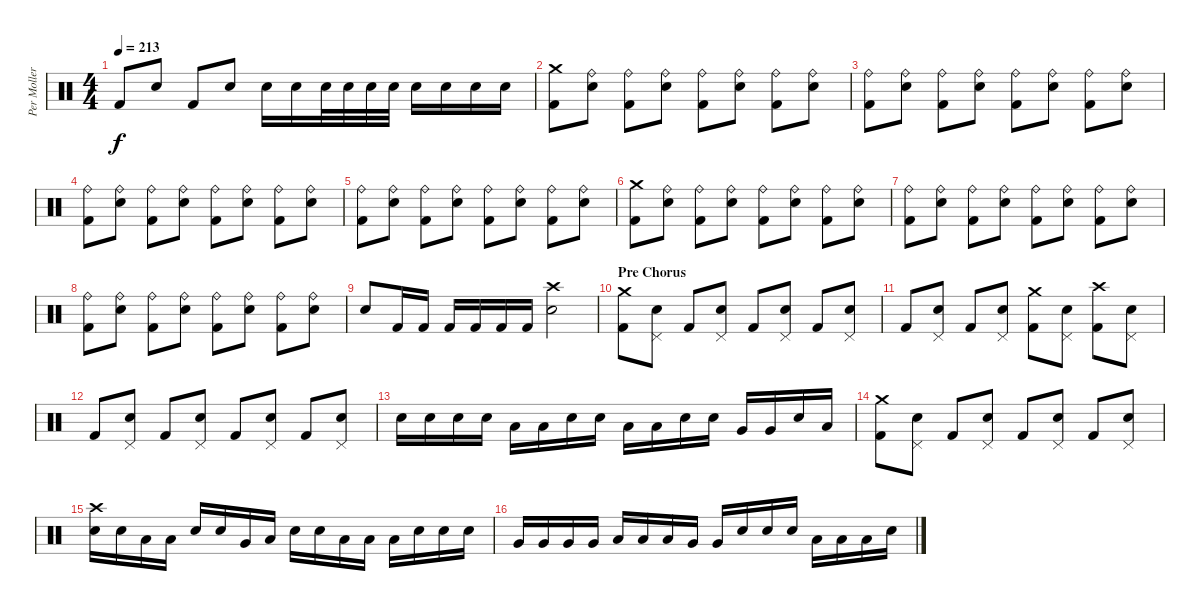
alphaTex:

\track ("Per Moller Jensen" "Per Moller") {instrument percussion}
\staff {score}
\articulation defaults
\ts (4 4)
\tempo 213
\clef neutral
\ks c "Kick (hit) 2".8{dy f} "Snare (hit) 2".8 "Kick (hit) 2".8 "Snare (hit) 2".8 "Snare (hit) 2".16 "Snare (hit) 2".16 "Snare (hit) 2".32 "Snare (hit) 2".32 "Snare (hit) 2".32 "Snare (hit) 2".32 "Snare (hit) 2".16 "Snare (hit) 2".16 "Snare (hit) 2".16 "Snare (hit) 2".16
|
("Crash medium (hit)" "Kick (hit) 2").8 ("Ride (bell)" "Snare (hit) 2").8 ("Ride (bell)" "Kick (hit) 2").8 ("Ride (bell)" "Snare (hit) 2").8 ("Ride (bell)" "Kick (hit) 2").8 ("Ride (bell)" "Snare (hit) 2").8 ("Ride (bell)" "Kick (hit) 2").8 ("Ride (bell)" "Snare (hit) 2").8 |
("Ride (bell)" "Kick (hit) 2").8 ("Ride (bell)" "Snare (hit) 2").8 ("Ride (bell)" "Kick (hit) 2").8 ("Ride (bell)" "Snare (hit) 2").8 ("Ride (bell)" "Kick (hit) 2").8 ("Ride (bell)" "Snare (hit) 2").8 ("Ride (bell)" "Kick (hit) 2").8 ("Ride (bell)" "Snare (hit) 2").8 |
("Ride (bell)" "Kick (hit) 2").8 ("Ride (bell)" "Snare (hit) 2").8 ("Ride (bell)" "Kick (hit) 2").8 ("Ride (bell)" "Snare (hit) 2").8 ("Ride (bell)" "Kick (hit) 2").8 ("Ride (bell)" "Snare (hit) 2").8 ("Ride (bell)" "Kick (hit) 2").8 ("Ride (bell)" "Snare (hit) 2").8 |
("Ride (bell)" "Kick (hit) 2").8 ("Ride (bell)" "Snare (hit) 2").8 ("Ride (bell)" "Kick (hit) 2").8 ("Ride (bell)" "Snare (hit) 2").8 ("Ride (bell)" "Kick (hit) 2").8 ("Ride (bell)" "Snare (hit) 2").8 ("Ride (bell)" "Kick (hit) 2").8 ("Ride (bell)" "Snare (hit) 2").8 |
("Crash medium (hit)" "Kick (hit) 2").8 ("Ride (bell)" "Snare (hit) 2").8 ("Ride (bell)" "Kick (hit) 2").8 ("Ride (bell)" "Snare (hit) 2").8 ("Ride (bell)" "Kick (hit) 2").8 ("Ride (bell)" "Snare (hit) 2").8 ("Ride (bell)" "Kick (hit) 2").8 ("Ride (bell)" "Snare (hit) 2").8 |
("Ride (bell)" "Kick (hit) 2").8 ("Ride (bell)" "Snare (hit) 2").8 ("Ride (bell)" "Kick (hit) 2").8 ("Ride (bell)" "Snare (hit) 2").8 ("Ride (bell)" "Kick (hit) 2").8 ("Ride (bell)" "Snare (hit) 2").8 ("Ride (bell)" "Kick (hit) 2").8 ("Ride (bell)" "Snare (hit) 2").8 |
("Ride (bell)" "Kick (hit) 2").8 ("Ride (bell)" "Snare (hit) 2").8 ("Ride (bell)" "Kick (hit) 2").8 ("Ride (bell)" "Snare (hit) 2").8 ("Ride (bell)" "Kick (hit) 2").8 ("Ride (bell)" "Snare (hit) 2").8 ("Ride (bell)" "Kick (hit) 2").8 ("Ride (bell)" "Snare (hit) 2").8 |
"Snare (hit) 2".8 "Kick (hit) 2".16 "Kick (hit) 2".16 "Kick (hit) 2".16 "Kick (hit) 2".16 "Kick (hit) 2".16 "Kick (hit) 2".16 ("Crash high (hit)" "Snare (hit) 2").2 |
\section ("" "Pre Chorus")
("Crash medium (hit)" "Kick (hit) 2").8 ("Pedal Hi-Hat (hit)" "Snare (hit) 2").8 "Kick (hit) 2".8 ("Pedal Hi-Hat (hit)" "Snare (hit) 2").8 "Kick (hit) 2".8 ("Pedal Hi-Hat (hit)" "Snare (hit) 2").8 "Kick (hit) 2".8 ("Pedal Hi-Hat (hit)" "Snare (hit) 2").8 |
"Kick (hit) 2".8 ("Pedal Hi-Hat (hit)" "Snare (hit) 2").8 "Kick (hit) 2".8 ("Pedal Hi-Hat (hit)" "Snare (hit) 2").8 ("Crash medium (hit)" "Kick (hit) 2").8 ("Pedal Hi-Hat (hit)" "Snare (hit) 2").8 ("Crash high (hit)" "Kick (hit) 2").8 ("Pedal Hi-Hat (hit)" "Snare (hit) 2").8 |
"Kick (hit) 2".8 ("Pedal Hi-Hat (hit)" "Snare (hit) 2").8 "Kick (hit) 2".8 ("Pedal Hi-Hat (hit)" "Snare (hit) 2").8 "Kick (hit) 2".8 ("Pedal Hi-Hat (hit)" "Snare (hit) 2").8 "Kick (hit) 2".8 ("Pedal Hi-Hat (hit)" "Snare (hit) 2").8 |
"Snare (hit) 2".16 "Snare (hit) 2".16 "Snare (hit) 2".16 "Snare (hit) 2".16 "Low Floor Tom (hit)".16 "Low Floor Tom (hit)".16 "Snare (hit) 2".16 "Snare (hit) 2".16 "Low Floor Tom (hit)".16 "Low Floor Tom (hit)".16 "Snare (hit) 2".16 "Snare (hit) 2".16 "Very Low Tom (hit)".16 "Very Low Tom (hit)".16 "Snare (hit) 2".16 "Low Floor Tom (hit)".16 |
("Crash medium (hit)" "Kick (hit) 2").8 ("Pedal Hi-Hat (hit)" "Snare (hit) 2").8 "Kick (hit) 2".8 ("Pedal Hi-Hat (hit)" "Snare (hit) 2").8 "Kick (hit) 2".8 ("Pedal Hi-Hat (hit)" "Snare (hit) 2").8 "Kick (hit) 2".8 ("Pedal Hi-Hat (hit)" "Snare (hit) 2").8 |
("Crash high (hit)" "Snare (hit) 2").16 "Snare (hit) 2".16 "Low Tom (hit)".16 "Low Tom (hit)".16 "Snare (hit) 2".16 "Snare (hit) 2".16 "Very Low Tom (hit)".16 "Low Floor Tom (hit)".16 "Snare (hit) 2".16 "Snare (hit) 2".16 "Low Floor Tom (hit)".16 "Low Floor Tom (hit)".16 "Low Floor Tom (hit)".16 "Snare (hit) 2".16 "Snare (hit) 2".16 "Snare (hit) 2".16 |
"Very Low Tom (hit)".16 "Very Low Tom (hit)".16 "Very Low Tom (hit)".16 "Very Low Tom (hit)".16 "Low Floor Tom (hit)".16 "Low Floor Tom (hit)".16 "Low Floor Tom (hit)".16 "Very Low Tom (hit)".16 "Very Low Tom (hit)".16 "Snare (hit) 2".16 "Snare (hit) 2".16 "Snare (hit) 2".16 "Low Floor Tom (hit)".16 "Low Floor Tom (hit)".16 "Low Floor Tom (hit)".16 "Snare (hit) 2".16
